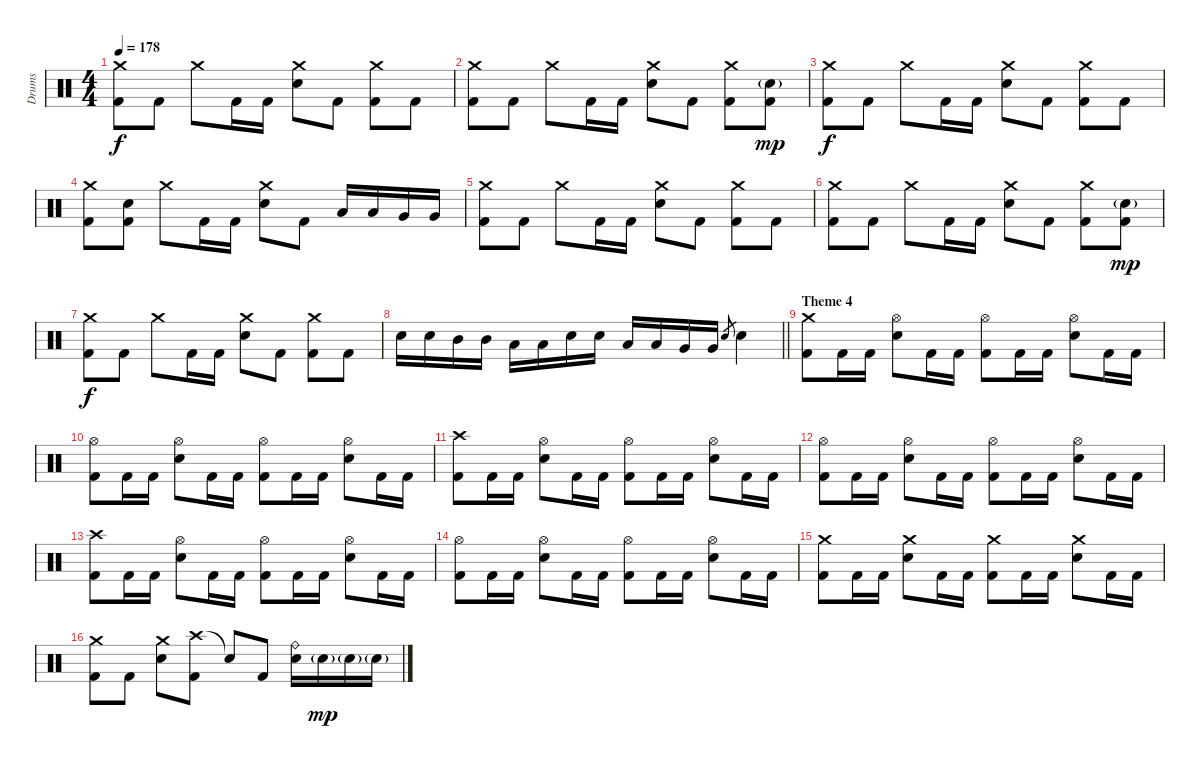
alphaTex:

\track ("Drums" "Drums") {instrument percussion}
\staff {score}
\articulation defaults
\ts (4 4)
\tempo 178
\clef neutral
\ks c
("Crash medium (hit)" "Kick (hit) 2").8{dy f} "Kick (hit) 2".8 "Crash medium (hit)".8 "Kick (hit) 2".16 "Kick (hit) 2".16 ("Crash medium (hit)" "Snare (hit) 2").8 "Kick (hit) 2".8 ("Crash medium (hit)" "Kick (hit) 2").8 "Kick (hit) 2".8 |
("Crash medium (hit)" "Kick (hit) 2").8 "Kick (hit) 2".8 "Crash medium (hit)".8 "Kick (hit) 2".16 "Kick (hit) 2".16 ("Crash medium (hit)" "Snare (hit) 2").8 "Kick (hit) 2".8 ("Crash medium (hit)" "Kick (hit) 2").8 ("Snare (hit) 2"{g} "Kick (hit) 2").8{dy mp} |
("Crash medium (hit)" "Kick (hit) 2").8{dy f} "Kick (hit) 2".8 "Crash medium (hit)".8 "Kick (hit) 2".16 "Kick (hit) 2".16 ("Crash medium (hit)" "Snare (hit) 2").8 "Kick (hit) 2".8 ("Crash medium (hit)" "Kick (hit) 2").8 "Kick (hit) 2".8 |
("Crash medium (hit)" "Kick (hit) 2").8 ("Snare (hit) 2" "Kick (hit) 2").8 "Crash medium (hit)".8 "Kick (hit) 2".16 "Kick (hit) 2".16 ("Crash medium (hit)" "Snare (hit) 2").8 "Kick (hit) 2".8 "Low Tom (hit)".16 "Low Tom (hit)".16 "Very Low Tom (hit)".16 "Very Low Tom (hit)".16 |
("Crash medium (hit)" "Kick (hit) 2").8 "Kick (hit) 2".8 "Crash medium (hit)".8 "Kick (hit) 2".16 "Kick (hit) 2".16 ("Crash medium (hit)" "Snare (hit) 2").8 "Kick (hit) 2".8 ("Crash medium (hit)" "Kick (hit) 2").8 "Kick (hit) 2".8 |
("Crash medium (hit)" "Kick (hit) 2").8 "Kick (hit) 2".8 "Crash medium (hit)".8 "Kick (hit) 2".16 "Kick (hit) 2".16 ("Crash medium (hit)" "Snare (hit) 2").8 "Kick (hit) 2".8 ("Crash medium (hit)" "Kick (hit) 2").8 ("Snare (hit) 2"{g} "Kick (hit) 2").8{dy mp} |
("Crash medium (hit)" "Kick (hit) 2").8{dy f} "Kick (hit) 2".8 "Crash medium (hit)".8 "Kick (hit) 2".16 "Kick (hit) 2".16 ("Crash medium (hit)" "Snare (hit) 2").8 "Kick (hit) 2".8 ("Crash medium (hit)" "Kick (hit) 2").8 "Kick (hit) 2".8 |
\barLineRight lightlight "Snare (hit) 2".16 "Snare (hit) 2".16 "Mid Tom (hit)".16 "Mid Tom (hit)".16 "Low Tom (hit)".16 "Low Tom (hit)".16 "Snare (hit) 2".16 "Snare (hit) 2".16 "Low Tom (hit)".16 "Low Tom (hit)".16 "Very Low Tom (hit)".16 "Very Low Tom (hit)".16 "Snare (hit) 2".8{gr} "Snare (hit) 2".4
|
\section ("" "Theme 4")
("Crash medium (hit)" "Kick (hit) 2").8 "Kick (hit) 2".16 "Kick (hit) 2".16 ("Hi-Hat (open)" "Snare (hit) 2").8 "Kick (hit) 2".16 "Kick (hit) 2".16 ("Hi-Hat (open)" "Kick (hit) 2").8 "Kick (hit) 2".16 "Kick (hit) 2".16 ("Hi-Hat (open)" "Snare (hit) 2").8 "Kick (hit) 2".16 "Kick (hit) 2".16 |
("Hi-Hat (open)" "Kick (hit) 2").8 "Kick (hit) 2".16 "Kick (hit) 2".16 ("Hi-Hat (open)" "Snare (hit) 2").8 "Kick (hit) 2".16 "Kick (hit) 2".16 ("Hi-Hat (open)" "Kick (hit) 2").8 "Kick (hit) 2".16 "Kick (hit) 2".16 ("Hi-Hat (open)" "Snare (hit) 2").8 "Kick (hit) 2".16 "Kick (hit) 2".16 |
("Crash high (hit)" "Kick (hit) 2").8 "Kick (hit) 2".16 "Kick (hit) 2".16 ("Hi-Hat (open)" "Snare (hit) 2").8 "Kick (hit) 2".16 "Kick (hit) 2".16 ("Hi-Hat (open)" "Kick (hit) 2").8 "Kick (hit) 2".16 "Kick (hit) 2".16 ("Hi-Hat (open)" "Snare (hit) 2").8 "Kick (hit) 2".16 "Kick (hit) 2".16 |
("Hi-Hat (open)" "Kick (hit) 2").8 "Kick (hit) 2".16 "Kick (hit) 2".16 ("Hi-Hat (open)" "Snare (hit) 2").8 "Kick (hit) 2".16 "Kick (hit) 2".16 ("Hi-Hat (open)" "Kick (hit) 2").8 "Kick (hit) 2".16 "Kick (hit) 2".16 ("Hi-Hat (open)" "Snare (hit) 2").8 "Kick (hit) 2".16 "Kick (hit) 2".16 |
("Crash high (hit)" "Kick (hit) 2").8 "Kick (hit) 2".16 "Kick (hit) 2".16 ("Hi-Hat (open)" "Snare (hit) 2").8 "Kick (hit) 2".16 "Kick (hit) 2".16 ("Hi-Hat (open)" "Kick (hit) 2").8 "Kick (hit) 2".16 "Kick (hit) 2".16 ("Hi-Hat (open)" "Snare (hit) 2").8 "Kick (hit) 2".16 "Kick (hit) 2".16 |
("Hi-Hat (open)" "Kick (hit) 2").8 "Kick (hit) 2".16 "Kick (hit) 2".16 ("Hi-Hat (open)" "Snare (hit) 2").8 "Kick (hit) 2".16 "Kick (hit) 2".16 ("Hi-Hat (open)" "Kick (hit) 2").8 "Kick (hit) 2".16 "Kick (hit) 2".16 ("Hi-Hat (open)" "Snare (hit) 2").8 "Kick (hit) 2".16 "Kick (hit) 2".16 |
("Crash medium (hit)" "Kick (hit) 2").8 "Kick (hit) 2".16 "Kick (hit) 2".16 ("Crash medium (hit)" "Snare (hit) 2").8 "Kick (hit) 2".16 "Kick (hit) 2".16 ("Crash medium (hit)" "Kick (hit) 2").8 "Kick (hit) 2".16 "Kick (hit) 2".16 ("Crash medium (hit)" "Snare (hit) 2").8 "Kick (hit) 2".16 "Kick (hit) 2".16 |
("Crash medium (hit)" "Kick (hit) 2").8 "Kick (hit) 2".8 ("Crash medium (hit)" "Snare (hit) 2").8 ("Crash high (hit)" "Kick (hit) 2").8 "Snare (hit)"{t}.8 "Kick (hit) 2".8 ("Ride (bell)" "Snare (hit) 2").16 "Snare (hit) 2"{g}.16{dy mp} "Snare (hit) 2"{g}.16 "Snare (hit) 2"{g}.16
